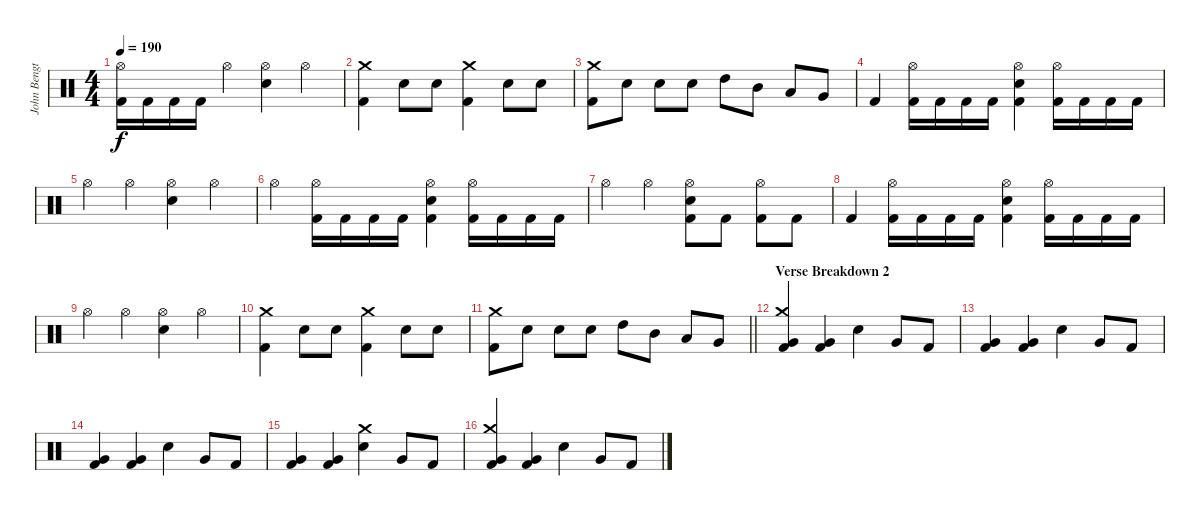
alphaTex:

\track ("John Bengtsson" "John Bengt") {instrument percussion}
\staff {score}
\articulation defaults
\ts (4 4)
\tempo 190
\clef neutral
\ks c
("Hi-Hat (open)" "Kick (hit) 2").16{dy f} "Kick (hit) 2".16 "Kick (hit) 2".16 "Kick (hit) 2".16 "Hi-Hat (open)".4 ("Hi-Hat (open)" "Electric Snare (hit)").4 "Hi-Hat (open)".4 |
("Crash medium (hit)" "Kick (hit) 2").4 "Electric Snare (hit)".8 "Electric Snare (hit)".8 ("Crash medium (hit)" "Kick (hit) 2").4 "Electric Snare (hit)".8 "Electric Snare (hit)".8 |
("Crash medium (hit)" "Kick (hit) 2").8 "Electric Snare (hit)".8 "Electric Snare (hit)".8 "Electric Snare (hit)".8 "High Tom (hit)".8 "Mid Tom (hit)".8 "Low Tom (hit)".8 "Very Low Tom (hit)".8 |
"Kick (hit) 2".4 ("Hi-Hat (open)" "Kick (hit) 2").16 "Kick (hit) 2".16 "Kick (hit) 2".16 "Kick (hit) 2".16 ("Hi-Hat (open)" "Electric Snare (hit)" "Kick (hit) 2").4 ("Hi-Hat (open)" "Kick (hit) 2").16 "Kick (hit) 2".16 "Kick (hit) 2".16 "Kick (hit) 2".16 |
"Hi-Hat (open)".4 "Hi-Hat (open)".4 ("Hi-Hat (open)" "Electric Snare (hit)").4 "Hi-Hat (open)".4 |
"Hi-Hat (open)".4 ("Hi-Hat (open)" "Kick (hit) 2").16 "Kick (hit) 2".16 "Kick (hit) 2".16 "Kick (hit) 2".16 ("Hi-Hat (open)" "Electric Snare (hit)" "Kick (hit) 2").4 ("Hi-Hat (open)" "Kick (hit) 2").16 "Kick (hit) 2".16 "Kick (hit) 2".16 "Kick (hit) 2".16 |
"Hi-Hat (open)".4 "Hi-Hat (open)".4 ("Hi-Hat (open)" "Electric Snare (hit)" "Kick (hit) 2").8 "Kick (hit) 2".8 ("Hi-Hat (open)" "Kick (hit) 2").8 "Kick (hit) 2".8 |
"Kick (hit) 2".4 ("Hi-Hat (open)" "Kick (hit) 2").16 "Kick (hit) 2".16 "Kick (hit) 2".16 "Kick (hit) 2".16 ("Hi-Hat (open)" "Electric Snare (hit)" "Kick (hit) 2").4 ("Hi-Hat (open)" "Kick (hit) 2").16 "Kick (hit) 2".16 "Kick (hit) 2".16 "Kick (hit) 2".16 |
"Hi-Hat (open)".4 "Hi-Hat (open)".4 ("Hi-Hat (open)" "Electric Snare (hit)").4 "Hi-Hat (open)".4 |
("Crash medium (hit)" "Kick (hit) 2").4 "Electric Snare (hit)".8 "Electric Snare (hit)".8 ("Crash medium (hit)" "Kick (hit) 2").4 "Electric Snare (hit)".8 "Electric Snare (hit)".8 |
\barLineRight lightlight
("Crash medium (hit)" "Kick (hit) 2").8 "Electric Snare (hit)".8 "Electric Snare (hit)".8 "Electric Snare (hit)".8 "High Tom (hit)".8 "Mid Tom (hit)".8 "Low Tom (hit)".8 "Very Low Tom (hit)".8 |
\section ("" "Verse Breakdown 2")
("Crash medium (hit)" "Very Low Tom (hit)" "Kick (hit) 2").4 ("Very Low Tom (hit)" "Kick (hit) 2").4 "Electric Snare (hit)".4 "Very Low Tom (hit)".8 "Kick (hit) 2".8 |
("Very Low Tom (hit)" "Kick (hit) 2").4 ("Very Low Tom (hit)" "Kick (hit) 2").4 "Electric Snare (hit)".4 "Very Low Tom (hit)".8 "Kick (hit) 2".8 |
("Very Low Tom (hit)" "Kick (hit) 2").4 ("Very Low Tom (hit)" "Kick (hit) 2").4 "Electric Snare (hit)".4 "Very Low Tom (hit)".8 "Kick (hit) 2".8 |
("Very Low Tom (hit)" "Kick (hit) 2").4 ("Very Low Tom (hit)" "Kick (hit) 2").4 ("Crash medium (hit)" "Electric Snare (hit)").4 "Very Low Tom (hit)".8 "Kick (hit) 2".8 |
("Crash medium (hit)" "Very Low Tom (hit)" "Kick (hit) 2").4 ("Very Low Tom (hit)" "Kick (hit) 2").4 "Electric Snare (hit)".4 "Very Low Tom (hit)".8 "Kick (hit) 2".8
